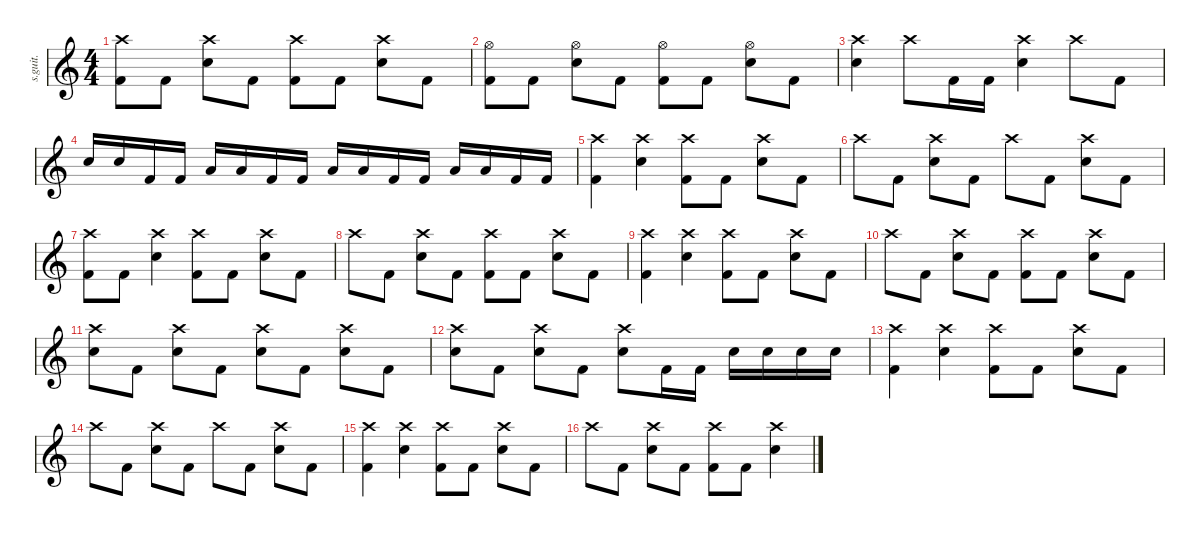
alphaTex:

\defaultSystemsLayout 4
\hideDynamics
\bracketExtendMode nobrackets
\track ("" "s.guit.") {instrument percussion}
\staff {score}
\articulation defaults
\ts (4 4)
\tempo (184 hide)
\clef g2
\ks c
("Crash high (hit)" "Kick (hit) 2").8{dy f} "Kick (hit) 2".8 ("Crash high (hit)" "Snare (hit) 2").8 "Kick (hit) 2".8 ("Crash high (hit)" "Kick (hit) 2").8 "Kick (hit) 2".8 ("Crash high (hit)" "Snare (hit) 2").8 "Kick (hit) 2".8 |
("Hi-Hat (open)" "Kick (hit) 2").8 "Kick (hit) 2".8 ("Hi-Hat (open)" "Snare (hit) 2").8 "Kick (hit) 2".8 ("Hi-Hat (open)" "Kick (hit) 2").8 "Kick (hit) 2".8 ("Hi-Hat (open)" "Snare (hit) 2").8 "Kick (hit) 2".8 |
("Crash high (hit)" "Snare (hit) 2").4 "Crash high (hit)".8 "Kick (hit) 2".16 "Kick (hit) 2".16 ("Crash high (hit)" "Snare (hit) 2").4 "Crash high (hit)".8 "Kick (hit) 2".8 |
"Snare (hit) 2".16 "Snare (hit) 2".16 "Kick (hit) 2".16 "Kick (hit) 2".16 "Low Tom (hit)".16 "Low Tom (hit)".16 "Kick (hit) 2".16 "Kick (hit) 2".16 "Low Tom (hit)".16 "Low Tom (hit)".16 "Kick (hit) 2".16 "Kick (hit) 2".16 "Low Tom (hit)".16 "Low Tom (hit)".16 "Kick (hit) 2".16 "Kick (hit) 2".16 |
("Crash high (hit)" "Kick (hit) 2").4 ("Crash high (hit)" "Snare (hit) 2").4 ("Crash high (hit)" "Kick (hit) 2").8 "Kick (hit) 2".8 ("Crash high (hit)" "Snare (hit) 2").8 "Kick (hit) 2".8 |
"Crash high (hit)".8 "Kick (hit) 2".8 ("Crash high (hit)" "Snare (hit) 2").8 "Kick (hit) 2".8 "Crash high (hit)".8 "Kick (hit) 2".8 ("Crash high (hit)" "Snare (hit) 2").8 "Kick (hit) 2".8 |
("Crash high (hit)" "Kick (hit) 2").8 "Kick (hit) 2".8 ("Crash high (hit)" "Snare (hit) 2").4 ("Crash high (hit)" "Kick (hit) 2").8 "Kick (hit) 2".8 ("Crash high (hit)" "Snare (hit) 2").8 "Kick (hit) 2".8 |
"Crash high (hit)".8 "Kick (hit) 2".8 ("Crash high (hit)" "Snare (hit) 2").8 "Kick (hit) 2".8 ("Crash high (hit)" "Kick (hit) 2").8 "Kick (hit) 2".8 ("Crash high (hit)" "Snare (hit) 2").8 "Kick (hit) 2".8 |
("Crash high (hit)" "Kick (hit) 2").4 ("Crash high (hit)" "Snare (hit) 2").4 ("Crash high (hit)" "Kick (hit) 2").8 "Kick (hit) 2".8 ("Crash high (hit)" "Snare (hit) 2").8 "Kick (hit) 2".8 |
"Crash high (hit)".8 "Kick (hit) 2".8 ("Crash high (hit)" "Snare (hit) 2").8 "Kick (hit) 2".8 ("Crash high (hit)" "Kick (hit) 2").8 "Kick (hit) 2".8 ("Crash high (hit)" "Snare (hit) 2").8 "Kick (hit) 2".8 |
("Crash high (hit)" "Snare (hit) 2").8 "Kick (hit) 2".8 ("Crash high (hit)" "Snare (hit) 2").8 "Kick (hit) 2".8 ("Crash high (hit)" "Snare (hit) 2").8 "Kick (hit) 2".8 ("Crash high (hit)" "Snare (hit) 2").8 "Kick (hit) 2".8 |
("Crash high (hit)" "Snare (hit) 2").8 "Kick (hit) 2".8 ("Crash high (hit)" "Snare (hit) 2").8 "Kick (hit) 2".8 ("Crash high (hit)" "Snare (hit) 2").8 "Kick (hit) 2".16 "Kick (hit) 2".16 "Snare (hit) 2".16 "Snare (hit) 2".16 "Snare (hit) 2".16 "Snare (hit) 2".16 |
("Crash high (hit)" "Kick (hit) 2").4 ("Crash high (hit)" "Snare (hit) 2").4 ("Crash high (hit)" "Kick (hit) 2").8 "Kick (hit) 2".8 ("Crash high (hit)" "Snare (hit) 2").8 "Kick (hit) 2".8 |
"Crash high (hit)".8 "Kick (hit) 2".8 ("Crash high (hit)" "Snare (hit) 2").8 "Kick (hit) 2".8 "Crash high (hit)".8 "Kick (hit) 2".8 ("Crash high (hit)" "Snare (hit) 2").8 "Kick (hit) 2".8 |
("Crash high (hit)" "Kick (hit) 2").4 ("Crash high (hit)" "Snare (hit) 2").4 ("Crash high (hit)" "Kick (hit) 2").8 "Kick (hit) 2".8 ("Crash high (hit)" "Snare (hit) 2").8 "Kick (hit) 2".8 |
"Crash high (hit)".8 "Kick (hit) 2".8 ("Crash high (hit)" "Snare (hit) 2").8 "Kick (hit) 2".8 ("Crash high (hit)" "Kick (hit) 2").8 "Kick (hit) 2".8 ("Crash high (hit)" "Snare (hit) 2").4
